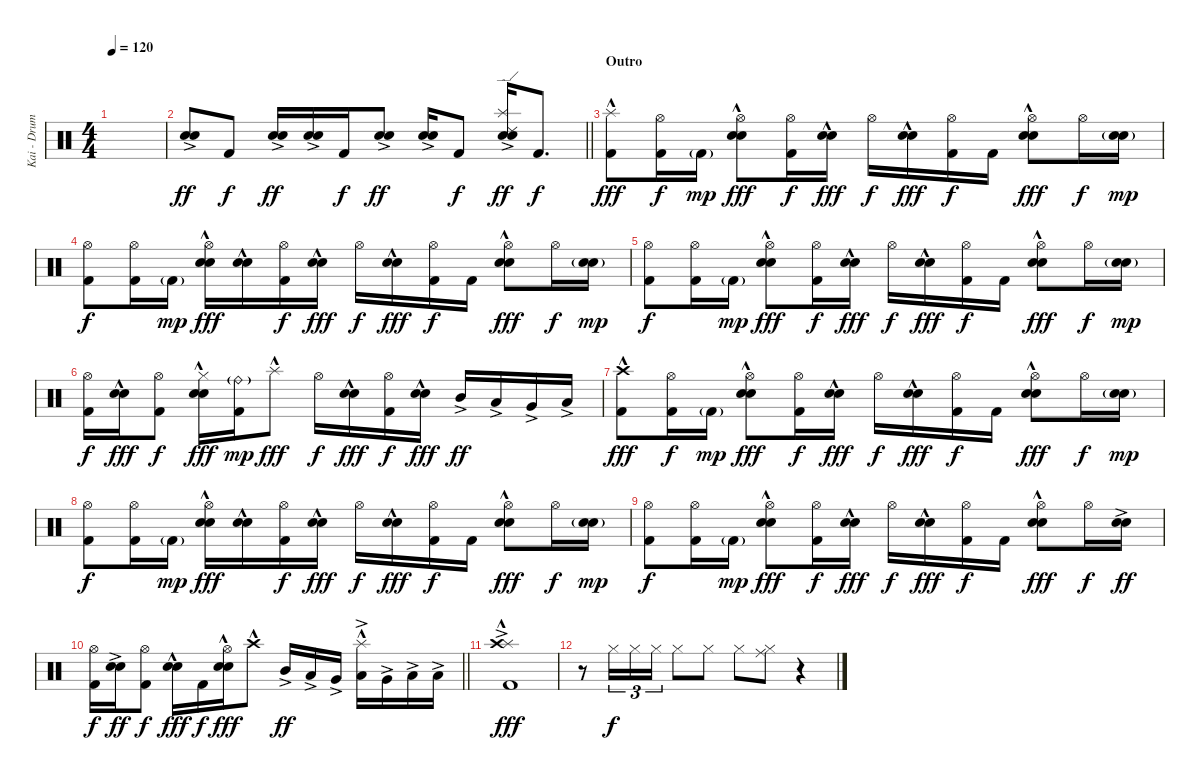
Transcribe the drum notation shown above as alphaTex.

\track ("Kai - Drums" "Kai - Drum") {instrument percussion}
\staff {score}
\articulation defaults
\ts (4 4)
\tempo 120
\clef neutral
\ks c
|
\barLineRight lightlight
("Electric Snare (hit)"{ac} "Snare (hit) 2"{ac}).8{dy ff} "Kick (hit) 2".8{dy f} ("Electric Snare (hit)"{ac} "Snare (hit) 2"{ac}).16{dy ff} ("Electric Snare (hit)"{ac} "Snare (hit) 2"{ac}).16 "Kick (hit) 2".16{dy f} ("Electric Snare (hit)"{ac} "Snare (hit) 2"{ac}).8{dy ff} ("Electric Snare (hit)"{ac} "Snare (hit) 2"{ac}).16 "Kick (hit) 2".8{dy f} ("Splash (hit)"{ac} "Ride (edge) 2"{ac} "Electric Snare (hit)"{ac} "Snare (hit) 2"{ac}).16{dy ff} "Kick (hit) 2".8{d dy f} |
\section ("" "Outro")
("Splash (hit)"{hac} "Kick (hit) 2").8{dy fff} ("Hi-Hat (open)" "Kick (hit) 2").16{dy f} "Kick (hit) 2"{g}.16{dy mp} ("Hi-Hat (open)" "Electric Snare (hit)"{hac} "Snare (hit) 2").8{dy fff} ("Hi-Hat (open)" "Kick (hit) 2").16{dy f} ("Electric Snare (hit)"{hac} "Snare (hit) 2").16{dy fff} "Hi-Hat (open)".16{dy f} ("Electric Snare (hit)"{hac} "Snare (hit) 2").16{dy fff} ("Hi-Hat (open)" "Kick (hit) 2").16{dy f} "Kick (hit) 2".16 ("Hi-Hat (open)" "Electric Snare (hit)"{hac} "Snare (hit) 2").8{dy fff} "Hi-Hat (open)".16{dy f} ("Electric Snare (hit)"{g} "Snare (hit) 2"{g}).16{dy mp} |
("Hi-Hat (open)" "Kick (hit) 2").8{dy f} ("Hi-Hat (open)" "Kick (hit) 2").16 "Kick (hit) 2"{g}.16{dy mp} ("Hi-Hat (open)" "Electric Snare (hit)"{hac} "Snare (hit) 2").16{dy fff} ("Electric Snare (hit)"{hac} "Snare (hit) 2").16 ("Hi-Hat (open)" "Kick (hit) 2").16{dy f} ("Electric Snare (hit)"{hac} "Snare (hit) 2").16{dy fff} "Hi-Hat (open)".16{dy f} ("Electric Snare (hit)"{hac} "Snare (hit) 2").16{dy fff} ("Hi-Hat (open)" "Kick (hit) 2").16{dy f} "Kick (hit) 2".16 ("Hi-Hat (open)" "Electric Snare (hit)"{hac} "Snare (hit) 2").8{dy fff} "Hi-Hat (open)".16{dy f} ("Electric Snare (hit)"{g} "Snare (hit) 2"{g}).16{dy mp} |
("Hi-Hat (open)" "Kick (hit) 2").8{dy f} ("Hi-Hat (open)" "Kick (hit) 2").16 "Kick (hit) 2"{g}.16{dy mp} ("Hi-Hat (open)" "Electric Snare (hit)"{hac} "Snare (hit) 2").8{dy fff} ("Hi-Hat (open)" "Kick (hit) 2").16{dy f} ("Electric Snare (hit)"{hac} "Snare (hit) 2").16{dy fff} "Hi-Hat (open)".16{dy f} ("Electric Snare (hit)"{hac} "Snare (hit) 2").16{dy fff} ("Hi-Hat (open)" "Kick (hit) 2").16{dy f} "Kick (hit) 2".16 ("Hi-Hat (open)" "Electric Snare (hit)"{hac} "Snare (hit) 2").8{dy fff} "Hi-Hat (open)".16{dy f} ("Electric Snare (hit)"{g} "Snare (hit) 2"{g}).16{dy mp} |
("Hi-Hat (open)" "Kick (hit) 2").16{dy f} ("Electric Snare (hit)"{hac} "Snare (hit) 2").16{dy fff} ("Hi-Hat (open)" "Kick (hit) 2").8{dy f} ("Hi-Hat (closed)" "Electric Snare (hit)"{hac} "Snare (hit) 2").16{dy fff} ("Ride (bell)"{g} "Kick (hit) 2").16{dy mp} "Splash (hit)"{hac}.8{dy fff} "Hi-Hat (open)".16{dy f} ("Electric Snare (hit)"{hac} "Snare (hit) 2").16{dy fff} ("Hi-Hat (open)" "Kick (hit) 2").16{dy f} ("Electric Snare (hit)"{hac} "Snare (hit) 2").16{dy fff} "Mid Tom (hit)"{ac}.16{dy ff} "Low Tom (hit)"{ac}.16 "Very Low Tom (hit)"{ac}.16 "Low Floor Tom (hit)"{ac}.16 |
("Crash high (hit)"{hac} "Kick (hit) 2").8{dy fff} ("Hi-Hat (open)" "Kick (hit) 2").16{dy f} "Kick (hit) 2"{g}.16{dy mp} ("Hi-Hat (open)" "Electric Snare (hit)"{hac} "Snare (hit) 2").8{dy fff} ("Hi-Hat (open)" "Kick (hit) 2").16{dy f} ("Electric Snare (hit)"{hac} "Snare (hit) 2").16{dy fff} "Hi-Hat (open)".16{dy f} ("Electric Snare (hit)"{hac} "Snare (hit) 2").16{dy fff} ("Hi-Hat (open)" "Kick (hit) 2").16{dy f} "Kick (hit) 2".16 ("Hi-Hat (open)" "Electric Snare (hit)"{hac} "Snare (hit) 2").8{dy fff} "Hi-Hat (open)".16{dy f} ("Electric Snare (hit)"{g} "Snare (hit) 2"{g}).16{dy mp} |
("Hi-Hat (open)" "Kick (hit) 2").8{dy f} ("Hi-Hat (open)" "Kick (hit) 2").16 "Kick (hit) 2"{g}.16{dy mp} ("Hi-Hat (open)" "Electric Snare (hit)"{hac} "Snare (hit) 2").16{dy fff} ("Electric Snare (hit)"{hac} "Snare (hit) 2").16 ("Hi-Hat (open)" "Kick (hit) 2").16{dy f} ("Electric Snare (hit)"{hac} "Snare (hit) 2").16{dy fff} "Hi-Hat (open)".16{dy f} ("Electric Snare (hit)"{hac} "Snare (hit) 2").16{dy fff} ("Hi-Hat (open)" "Kick (hit) 2").16{dy f} "Kick (hit) 2".16 ("Hi-Hat (open)" "Electric Snare (hit)"{hac} "Snare (hit) 2").8{dy fff} "Hi-Hat (open)".16{dy f} ("Electric Snare (hit)"{g} "Snare (hit) 2"{g}).16{dy mp} |
("Hi-Hat (open)" "Kick (hit) 2").8{dy f} ("Hi-Hat (open)" "Kick (hit) 2").16 "Kick (hit) 2"{g}.16{dy mp} ("Hi-Hat (open)" "Electric Snare (hit)"{hac} "Snare (hit) 2").8{dy fff} ("Hi-Hat (open)" "Kick (hit) 2").16{dy f} ("Electric Snare (hit)"{hac} "Snare (hit) 2").16{dy fff} "Hi-Hat (open)".16{dy f} ("Electric Snare (hit)"{hac} "Snare (hit) 2").16{dy fff} ("Hi-Hat (open)" "Kick (hit) 2").16{dy f} "Kick (hit) 2".16 ("Hi-Hat (open)" "Electric Snare (hit)"{hac} "Snare (hit) 2").8{dy fff} "Hi-Hat (open)".16{dy f} ("Electric Snare (hit)"{ac} "Snare (hit) 2").16{dy ff} |
\barLineRight lightlight
("Hi-Hat (open)" "Kick (hit) 2").16{dy f} ("Electric Snare (hit)"{ac} "Snare (hit) 2").16{dy ff} ("Hi-Hat (open)" "Kick (hit) 2").8{dy f} ("Electric Snare (hit)"{hac} "Snare (hit) 2").16{dy fff} "Kick (hit) 2".16{dy f} ("Hi-Hat (open)" "Electric Snare (hit)"{hac} "Snare (hit) 2").16{dy fff} "Crash high (hit)"{hac}.8 "Mid Tom (hit)"{ac}.16{dy ff} "Low Tom (hit)"{ac}.16 "Very Low Tom (hit)"{ac}.16 ("Splash (hit)"{hac} "Low Tom (hit)"{ac}).16 "Very Low Tom (hit)"{ac}.16 "Low Floor Tom (hit)"{ac}.16 "Low Floor Tom (hit)"{ac}.16 |
\section ("" "")
("Splash (hit)"{ac} "Crash high (hit)"{hac} "Kick (hit) 2").1{dy fff} |
r.8 "Hi-Hat (closed)".16{tu (3 2) dy f} "Hi-Hat (closed)".16{tu (3 2)} "Hi-Hat (closed)".16{tu (3 2)} "Hi-Hat (closed)".8 "Hi-Hat (closed)".8 "Hi-Hat (closed)".8 ("Hi-Hat (closed)" "Ride (middle)").8 r.4
